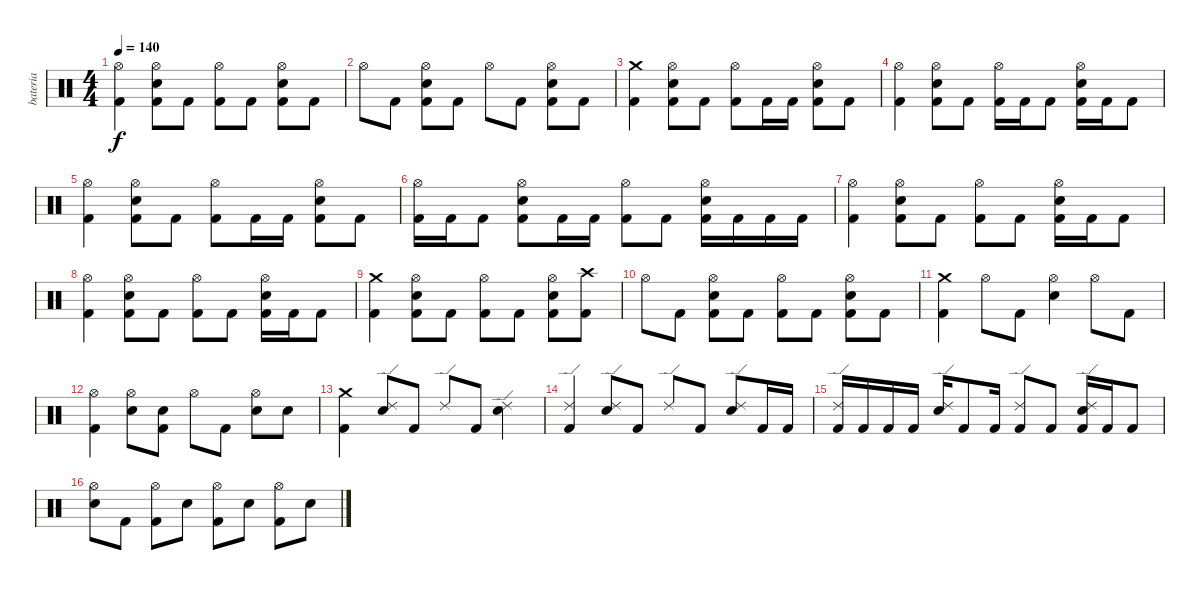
\track ("bateria" "bateria") {instrument percussion}
\staff {score}
\articulation defaults
\ts (4 4)
\tempo 140
\clef neutral
\ks c
("Hi-Hat (open)" "Kick (hit) 2").4{dy f} ("Hi-Hat (open)" "Electric Snare (hit)" "Kick (hit) 2").8 "Kick (hit) 2".8 ("Hi-Hat (open)" "Kick (hit) 2").8 "Kick (hit) 2".8 ("Hi-Hat (open)" "Electric Snare (hit)" "Kick (hit) 2").8 "Kick (hit) 2".8 |
"Hi-Hat (open)".8 "Kick (hit) 2".8 ("Hi-Hat (open)" "Electric Snare (hit)" "Kick (hit) 2").8 "Kick (hit) 2".8 "Hi-Hat (open)".8 "Kick (hit) 2".8 ("Hi-Hat (open)" "Electric Snare (hit)" "Kick (hit) 2").8 "Kick (hit) 2".8 |
("Crash medium (hit)" "Kick (hit) 2").4 ("Hi-Hat (open)" "Electric Snare (hit)" "Kick (hit) 2").8 "Kick (hit) 2".8 ("Hi-Hat (open)" "Kick (hit) 2").8 "Kick (hit) 2".16 "Kick (hit) 2".16 ("Hi-Hat (open)" "Electric Snare (hit)" "Kick (hit) 2").8 "Kick (hit) 2".8 |
("Hi-Hat (open)" "Kick (hit) 2").4 ("Hi-Hat (open)" "Electric Snare (hit)" "Kick (hit) 2").8 "Kick (hit) 2".8 ("Hi-Hat (open)" "Kick (hit) 2").16 "Kick (hit) 2".16 "Kick (hit) 2".8 ("Hi-Hat (open)" "Electric Snare (hit)" "Kick (hit) 2").16 "Kick (hit) 2".16 "Kick (hit) 2".8 |
("Hi-Hat (open)" "Kick (hit) 2").4 ("Hi-Hat (open)" "Electric Snare (hit)" "Kick (hit) 2").8 "Kick (hit) 2".8 ("Hi-Hat (open)" "Kick (hit) 2").8 "Kick (hit) 2".16 "Kick (hit) 2".16 ("Hi-Hat (open)" "Electric Snare (hit)" "Kick (hit) 2").8 "Kick (hit) 2".8 |
("Hi-Hat (open)" "Kick (hit) 2").16 "Kick (hit) 2".16 "Kick (hit) 2".8 ("Hi-Hat (open)" "Electric Snare (hit)" "Kick (hit) 2").8 "Kick (hit) 2".16 "Kick (hit) 2".16 ("Hi-Hat (open)" "Kick (hit) 2").8 "Kick (hit) 2".8 ("Hi-Hat (open)" "Electric Snare (hit)" "Kick (hit) 2").16 "Kick (hit) 2".16 "Kick (hit) 2".16 "Kick (hit) 2".16 |
("Hi-Hat (open)" "Kick (hit) 2").4 ("Hi-Hat (open)" "Electric Snare (hit)" "Kick (hit) 2").8 "Kick (hit) 2".8 ("Hi-Hat (open)" "Kick (hit) 2").8 "Kick (hit) 2".8 ("Hi-Hat (open)" "Electric Snare (hit)" "Kick (hit) 2").16 "Kick (hit) 2".16 "Kick (hit) 2".8 |
("Hi-Hat (open)" "Kick (hit) 2").4 ("Hi-Hat (open)" "Electric Snare (hit)" "Kick (hit) 2").8 "Kick (hit) 2".8 ("Hi-Hat (open)" "Kick (hit) 2").8 "Kick (hit) 2".8 ("Hi-Hat (open)" "Electric Snare (hit)" "Kick (hit) 2").16 "Kick (hit) 2".16 "Kick (hit) 2".8 |
("Crash medium (hit)" "Kick (hit) 2").4 ("Hi-Hat (open)" "Electric Snare (hit)" "Kick (hit) 2").8 "Kick (hit) 2".8 ("Hi-Hat (open)" "Kick (hit) 2").8 "Kick (hit) 2".8 ("Hi-Hat (open)" "Electric Snare (hit)" "Kick (hit) 2").8 ("Crash high (hit)" "Kick (hit) 2").8 |
"Hi-Hat (open)".8 "Kick (hit) 2".8 ("Hi-Hat (open)" "Electric Snare (hit)" "Kick (hit) 2").8 "Kick (hit) 2".8 ("Hi-Hat (open)" "Kick (hit) 2").8 "Kick (hit) 2".8 ("Hi-Hat (open)" "Electric Snare (hit)" "Kick (hit) 2").8 "Kick (hit) 2".8 |
("Crash medium (hit)" "Kick (hit) 2").4 "Hi-Hat (open)".8 "Kick (hit) 2".8 ("Hi-Hat (open)" "Electric Snare (hit)").4 "Hi-Hat (open)".8 "Kick (hit) 2".8 |
("Hi-Hat (open)" "Kick (hit) 2").4 ("Hi-Hat (open)" "Electric Snare (hit)").8 ("Electric Snare (hit)" "Kick (hit) 2").8 "Hi-Hat (open)".8 "Kick (hit) 2".8 ("Hi-Hat (open)" "Electric Snare (hit)").8 "Electric Snare (hit)".8 |
("Crash medium (hit)" "Kick (hit) 2").4 ("Ride (edge) 2" "Electric Snare (hit)").8 "Kick (hit) 2".8 "Ride (edge) 2".8 "Kick (hit) 2".8 ("Ride (edge) 2" "Electric Snare (hit)").4 |
("Ride (edge) 2" "Kick (hit) 2").4 ("Ride (edge) 2" "Electric Snare (hit)").8 "Kick (hit) 2".8 "Ride (edge) 2".8 "Kick (hit) 2".8 ("Ride (edge) 2" "Electric Snare (hit)").8 "Kick (hit) 2".16 "Kick (hit) 2".16 |
("Ride (edge) 2" "Kick (hit) 2").16 "Kick (hit) 2".16 "Kick (hit) 2".16 "Kick (hit) 2".16 ("Ride (edge) 2" "Electric Snare (hit)").16 "Kick (hit) 2".8 "Kick (hit) 2".16 ("Ride (edge) 2" "Kick (hit) 2").8 "Kick (hit) 2".8 ("Ride (edge) 2" "Electric Snare (hit)" "Kick (hit) 2").16 "Kick (hit) 2".16 "Kick (hit) 2".8 |
("Hi-Hat (open)" "Electric Snare (hit)").8 "Kick (hit) 2".8 ("Hi-Hat (open)" "Kick (hit) 2").8 "Electric Snare (hit)".8 ("Hi-Hat (open)" "Kick (hit) 2").8 "Electric Snare (hit)".8 ("Hi-Hat (open)" "Kick (hit) 2").8 "Electric Snare (hit)".8
